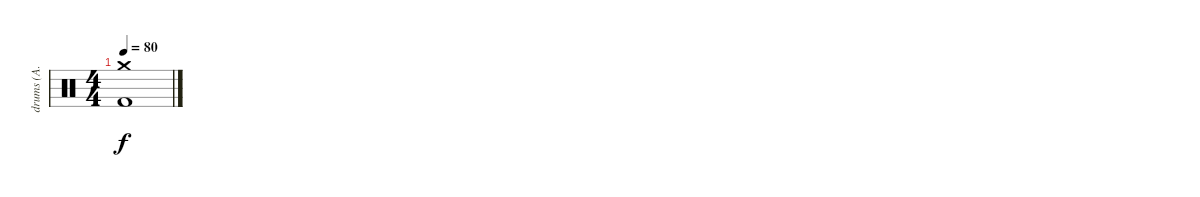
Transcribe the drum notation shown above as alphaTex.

\track ("drums (А. Котов)" "drums (А. ") {instrument percussion}
\staff {score}
\articulation defaults
\ts (4 4)
\tempo 80
\clef neutral
\ks c
("Kick (hit) 2" "Crash medium (hit)").1{dy f}
